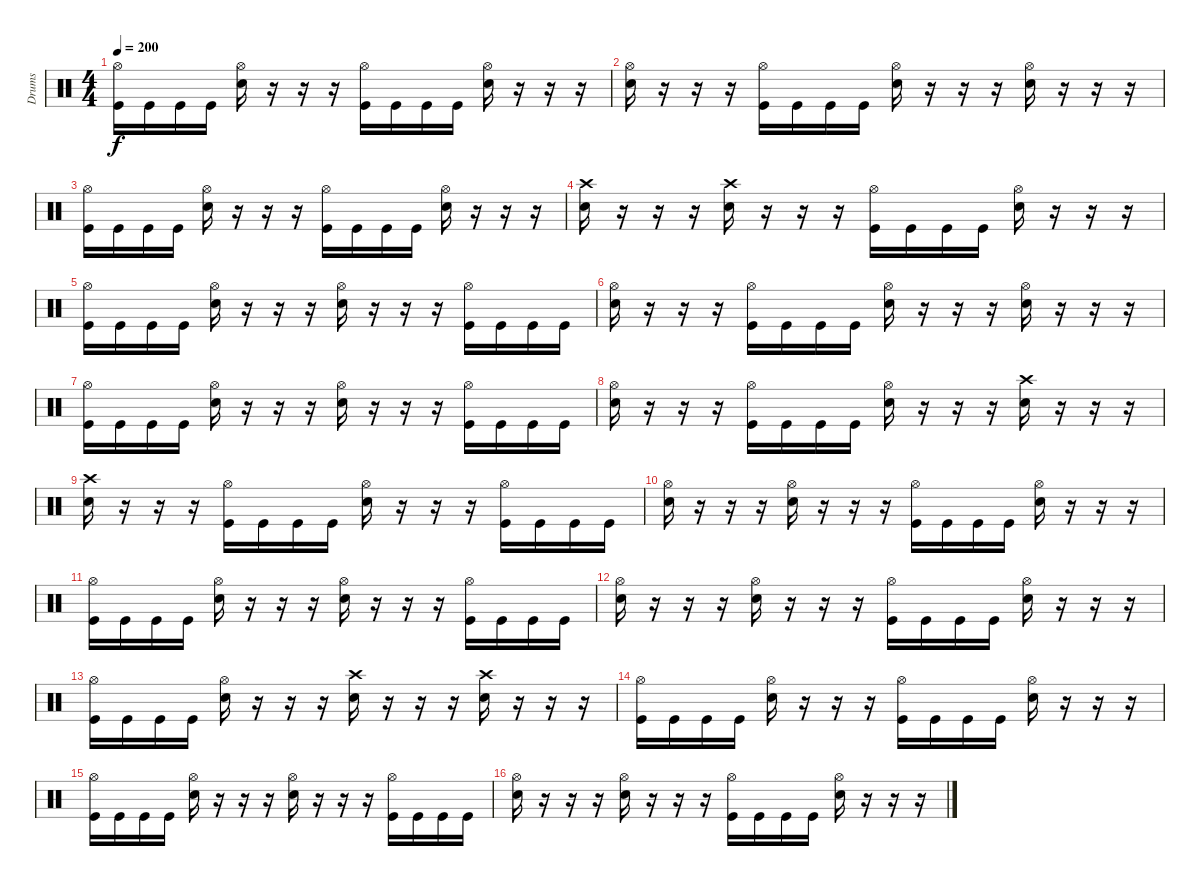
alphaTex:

\track ("Drums" "Drums") {instrument percussion}
\staff {score}
\articulation defaults
\ts (4 4)
\tempo 200
\clef neutral
\ks c
("Hi-Hat (open)" "Kick (hit)").16{dy f} "Kick (hit)".16 "Kick (hit)".16 "Kick (hit)".16 ("Hi-Hat (open)" "Snare (hit) 2").16 r.16 r.16 r.16 ("Hi-Hat (open)" "Kick (hit)").16 "Kick (hit)".16 "Kick (hit)".16 "Kick (hit)".16 ("Hi-Hat (open)" "Snare (hit) 2").16 r.16 r.16 r.16 |
("Hi-Hat (open)" "Snare (hit) 2").16 r.16 r.16 r.16 ("Hi-Hat (open)" "Kick (hit)").16 "Kick (hit)".16 "Kick (hit)".16 "Kick (hit)".16 ("Hi-Hat (open)" "Snare (hit) 2").16 r.16 r.16 r.16 ("Hi-Hat (open)" "Snare (hit) 2").16 r.16 r.16 r.16 |
("Hi-Hat (open)" "Kick (hit)").16 "Kick (hit)".16 "Kick (hit)".16 "Kick (hit)".16 ("Hi-Hat (open)" "Snare (hit) 2").16 r.16 r.16 r.16 ("Hi-Hat (open)" "Kick (hit)").16 "Kick (hit)".16 "Kick (hit)".16 "Kick (hit)".16 ("Hi-Hat (open)" "Snare (hit) 2").16 r.16 r.16 r.16 |
("Crash high (hit)" "Snare (hit) 2").16 r.16 r.16 r.16 ("Crash high (hit)" "Snare (hit) 2").16 r.16 r.16 r.16 ("Hi-Hat (open)" "Kick (hit)").16 "Kick (hit)".16 "Kick (hit)".16 "Kick (hit)".16 ("Hi-Hat (open)" "Snare (hit) 2").16 r.16 r.16 r.16 |
("Hi-Hat (open)" "Kick (hit)").16 "Kick (hit)".16 "Kick (hit)".16 "Kick (hit)".16 ("Hi-Hat (open)" "Snare (hit) 2").16 r.16 r.16 r.16 ("Hi-Hat (open)" "Snare (hit) 2").16 r.16 r.16 r.16 ("Hi-Hat (open)" "Kick (hit)").16 "Kick (hit)".16 "Kick (hit)".16 "Kick (hit)".16 |
("Hi-Hat (open)" "Snare (hit) 2").16 r.16 r.16 r.16 ("Hi-Hat (open)" "Kick (hit)").16 "Kick (hit)".16 "Kick (hit)".16 "Kick (hit)".16 ("Hi-Hat (open)" "Snare (hit) 2").16 r.16 r.16 r.16 ("Hi-Hat (open)" "Snare (hit) 2").16 r.16 r.16 r.16 |
("Hi-Hat (open)" "Kick (hit)").16 "Kick (hit)".16 "Kick (hit)".16 "Kick (hit)".16 ("Hi-Hat (open)" "Snare (hit) 2").16 r.16 r.16 r.16 ("Hi-Hat (open)" "Snare (hit) 2").16 r.16 r.16 r.16 ("Hi-Hat (open)" "Kick (hit)").16 "Kick (hit)".16 "Kick (hit)".16 "Kick (hit)".16 |
("Hi-Hat (open)" "Snare (hit) 2").16 r.16 r.16 r.16 ("Hi-Hat (open)" "Kick (hit)").16 "Kick (hit)".16 "Kick (hit)".16 "Kick (hit)".16 ("Hi-Hat (open)" "Snare (hit) 2").16 r.16 r.16 r.16 ("Crash high (hit)" "Snare (hit) 2").16 r.16 r.16 r.16 |
("Crash high (hit)" "Snare (hit) 2").16 r.16 r.16 r.16 ("Hi-Hat (open)" "Kick (hit)").16 "Kick (hit)".16 "Kick (hit)".16 "Kick (hit)".16 ("Hi-Hat (open)" "Snare (hit) 2").16 r.16 r.16 r.16 ("Hi-Hat (open)" "Kick (hit)").16 "Kick (hit)".16 "Kick (hit)".16 "Kick (hit)".16 |
("Hi-Hat (open)" "Snare (hit) 2").16 r.16 r.16 r.16 ("Hi-Hat (open)" "Snare (hit) 2").16 r.16 r.16 r.16 ("Hi-Hat (open)" "Kick (hit)").16 "Kick (hit)".16 "Kick (hit)".16 "Kick (hit)".16 ("Hi-Hat (open)" "Snare (hit) 2").16 r.16 r.16 r.16 |
("Hi-Hat (open)" "Kick (hit)").16 "Kick (hit)".16 "Kick (hit)".16 "Kick (hit)".16 ("Hi-Hat (open)" "Snare (hit) 2").16 r.16 r.16 r.16 ("Hi-Hat (open)" "Snare (hit) 2").16 r.16 r.16 r.16 ("Hi-Hat (open)" "Kick (hit)").16 "Kick (hit)".16 "Kick (hit)".16 "Kick (hit)".16 |
("Hi-Hat (open)" "Snare (hit) 2").16 r.16 r.16 r.16 ("Hi-Hat (open)" "Snare (hit) 2").16 r.16 r.16 r.16 ("Hi-Hat (open)" "Kick (hit)").16 "Kick (hit)".16 "Kick (hit)".16 "Kick (hit)".16 ("Hi-Hat (open)" "Snare (hit) 2").16 r.16 r.16 r.16 |
("Hi-Hat (open)" "Kick (hit)").16 "Kick (hit)".16 "Kick (hit)".16 "Kick (hit)".16 ("Hi-Hat (open)" "Snare (hit) 2").16 r.16 r.16 r.16 ("Crash high (hit)" "Snare (hit) 2").16 r.16 r.16 r.16 ("Crash high (hit)" "Snare (hit) 2").16 r.16 r.16 r.16 |
("Hi-Hat (open)" "Kick (hit)").16 "Kick (hit)".16 "Kick (hit)".16 "Kick (hit)".16 ("Hi-Hat (open)" "Snare (hit) 2").16 r.16 r.16 r.16 ("Hi-Hat (open)" "Kick (hit)").16 "Kick (hit)".16 "Kick (hit)".16 "Kick (hit)".16 ("Hi-Hat (open)" "Snare (hit) 2").16 r.16 r.16 r.16 |
("Hi-Hat (open)" "Kick (hit)").16 "Kick (hit)".16 "Kick (hit)".16 "Kick (hit)".16 ("Hi-Hat (open)" "Snare (hit) 2").16 r.16 r.16 r.16 ("Hi-Hat (open)" "Snare (hit) 2").16 r.16 r.16 r.16 ("Hi-Hat (open)" "Kick (hit)").16 "Kick (hit)".16 "Kick (hit)".16 "Kick (hit)".16 |
("Hi-Hat (open)" "Snare (hit) 2").16 r.16 r.16 r.16 ("Hi-Hat (open)" "Snare (hit) 2").16 r.16 r.16 r.16 ("Hi-Hat (open)" "Kick (hit)").16 "Kick (hit)".16 "Kick (hit)".16 "Kick (hit)".16 ("Hi-Hat (open)" "Snare (hit) 2").16 r.16 r.16 r.16
